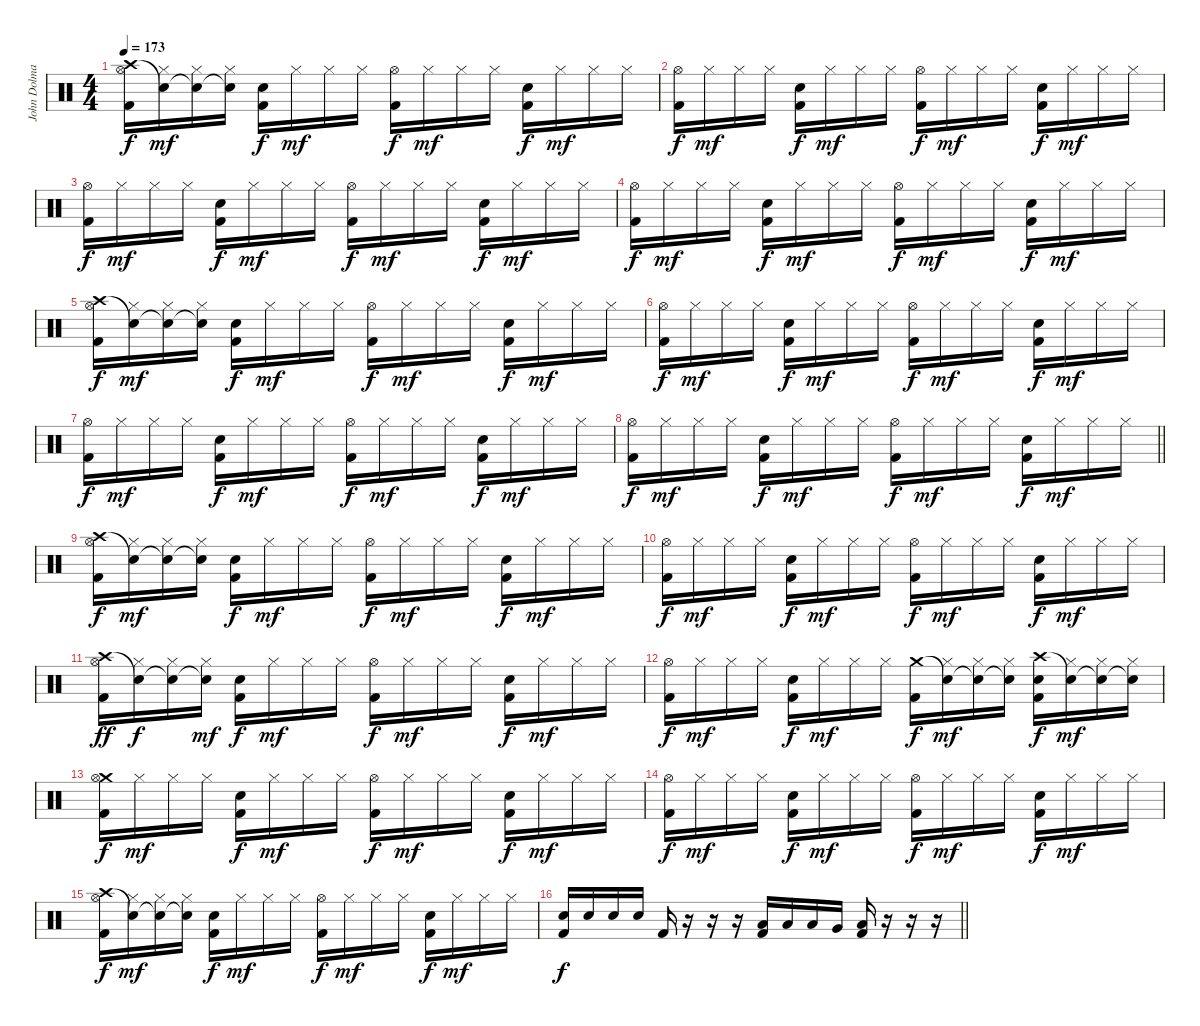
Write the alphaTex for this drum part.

\track ("John Dolmayan" "John Dolma") {instrument percussion}
\staff {score}
\articulation defaults
\ts (4 4)
\tempo 173
\clef neutral
\ks c
("Crash high (hit)" "Hi-Hat (open)" "Kick (hit) 2").16{dy f} ("Snare (hit)"{t} "Hi-Hat (closed)").16{dy mf} ("Snare (hit)"{t} "Hi-Hat (closed)").16 ("Snare (hit)"{t} "Hi-Hat (closed)").16 ("Electric Snare (hit)" "Kick (hit) 2").16{dy f} "Hi-Hat (closed)".16{dy mf} "Hi-Hat (closed)".16 "Hi-Hat (closed)".16 ("Hi-Hat (open)" "Kick (hit) 2").16{dy f} "Hi-Hat (closed)".16{dy mf} "Hi-Hat (closed)".16 "Hi-Hat (closed)".16 ("Electric Snare (hit)" "Kick (hit) 2").16{dy f} "Hi-Hat (closed)".16{dy mf} "Hi-Hat (closed)".16 "Hi-Hat (closed)".16 |
("Hi-Hat (open)" "Kick (hit) 2").16{dy f} "Hi-Hat (closed)".16{dy mf} "Hi-Hat (closed)".16 "Hi-Hat (closed)".16 ("Electric Snare (hit)" "Kick (hit) 2").16{dy f} "Hi-Hat (closed)".16{dy mf} "Hi-Hat (closed)".16 "Hi-Hat (closed)".16 ("Hi-Hat (open)" "Kick (hit) 2").16{dy f} "Hi-Hat (closed)".16{dy mf} "Hi-Hat (closed)".16 "Hi-Hat (closed)".16 ("Electric Snare (hit)" "Kick (hit) 2").16{dy f} "Hi-Hat (closed)".16{dy mf} "Hi-Hat (closed)".16 "Hi-Hat (closed)".16 |
("Hi-Hat (open)" "Kick (hit) 2").16{dy f} "Hi-Hat (closed)".16{dy mf} "Hi-Hat (closed)".16 "Hi-Hat (closed)".16 ("Electric Snare (hit)" "Kick (hit) 2").16{dy f} "Hi-Hat (closed)".16{dy mf} "Hi-Hat (closed)".16 "Hi-Hat (closed)".16 ("Hi-Hat (open)" "Kick (hit) 2").16{dy f} "Hi-Hat (closed)".16{dy mf} "Hi-Hat (closed)".16 "Hi-Hat (closed)".16 ("Electric Snare (hit)" "Kick (hit) 2").16{dy f} "Hi-Hat (closed)".16{dy mf} "Hi-Hat (closed)".16 "Hi-Hat (closed)".16 |
("Hi-Hat (open)" "Kick (hit) 2").16{dy f} "Hi-Hat (closed)".16{dy mf} "Hi-Hat (closed)".16 "Hi-Hat (closed)".16 ("Electric Snare (hit)" "Kick (hit) 2").16{dy f} "Hi-Hat (closed)".16{dy mf} "Hi-Hat (closed)".16 "Hi-Hat (closed)".16 ("Hi-Hat (open)" "Kick (hit) 2").16{dy f} "Hi-Hat (closed)".16{dy mf} "Hi-Hat (closed)".16 "Hi-Hat (closed)".16 ("Electric Snare (hit)" "Kick (hit) 2").16{dy f} "Hi-Hat (closed)".16{dy mf} "Hi-Hat (closed)".16 "Hi-Hat (closed)".16 |
("Crash high (hit)" "Hi-Hat (open)" "Kick (hit) 2").16{dy f} ("Snare (hit)"{t} "Hi-Hat (closed)").16{dy mf} ("Snare (hit)"{t} "Hi-Hat (closed)").16 ("Snare (hit)"{t} "Hi-Hat (closed)").16 ("Electric Snare (hit)" "Kick (hit) 2").16{dy f} "Hi-Hat (closed)".16{dy mf} "Hi-Hat (closed)".16 "Hi-Hat (closed)".16 ("Hi-Hat (open)" "Kick (hit) 2").16{dy f} "Hi-Hat (closed)".16{dy mf} "Hi-Hat (closed)".16 "Hi-Hat (closed)".16 ("Electric Snare (hit)" "Kick (hit) 2").16{dy f} "Hi-Hat (closed)".16{dy mf} "Hi-Hat (closed)".16 "Hi-Hat (closed)".16 |
("Hi-Hat (open)" "Kick (hit) 2").16{dy f} "Hi-Hat (closed)".16{dy mf} "Hi-Hat (closed)".16 "Hi-Hat (closed)".16 ("Electric Snare (hit)" "Kick (hit) 2").16{dy f} "Hi-Hat (closed)".16{dy mf} "Hi-Hat (closed)".16 "Hi-Hat (closed)".16 ("Hi-Hat (open)" "Kick (hit) 2").16{dy f} "Hi-Hat (closed)".16{dy mf} "Hi-Hat (closed)".16 "Hi-Hat (closed)".16 ("Electric Snare (hit)" "Kick (hit) 2").16{dy f} "Hi-Hat (closed)".16{dy mf} "Hi-Hat (closed)".16 "Hi-Hat (closed)".16 |
("Hi-Hat (open)" "Kick (hit) 2").16{dy f} "Hi-Hat (closed)".16{dy mf} "Hi-Hat (closed)".16 "Hi-Hat (closed)".16 ("Electric Snare (hit)" "Kick (hit) 2").16{dy f} "Hi-Hat (closed)".16{dy mf} "Hi-Hat (closed)".16 "Hi-Hat (closed)".16 ("Hi-Hat (open)" "Kick (hit) 2").16{dy f} "Hi-Hat (closed)".16{dy mf} "Hi-Hat (closed)".16 "Hi-Hat (closed)".16 ("Electric Snare (hit)" "Kick (hit) 2").16{dy f} "Hi-Hat (closed)".16{dy mf} "Hi-Hat (closed)".16 "Hi-Hat (closed)".16 |
\barLineRight lightlight
("Hi-Hat (open)" "Kick (hit) 2").16{dy f} "Hi-Hat (closed)".16{dy mf} "Hi-Hat (closed)".16 "Hi-Hat (closed)".16 ("Electric Snare (hit)" "Kick (hit) 2").16{dy f} "Hi-Hat (closed)".16{dy mf} "Hi-Hat (closed)".16 "Hi-Hat (closed)".16 ("Hi-Hat (open)" "Kick (hit) 2").16{dy f} "Hi-Hat (closed)".16{dy mf} "Hi-Hat (closed)".16 "Hi-Hat (closed)".16 ("Electric Snare (hit)" "Kick (hit) 2").16{dy f} "Hi-Hat (closed)".16{dy mf} "Hi-Hat (closed)".16 "Hi-Hat (closed)".16 |
("Crash high (hit)" "Hi-Hat (open)" "Kick (hit) 2").16{dy f} ("Snare (hit)"{t} "Hi-Hat (closed)").16{dy mf} ("Snare (hit)"{t} "Hi-Hat (closed)").16 ("Snare (hit)"{t} "Hi-Hat (closed)").16 ("Electric Snare (hit)" "Kick (hit) 2").16{dy f} "Hi-Hat (closed)".16{dy mf} "Hi-Hat (closed)".16 "Hi-Hat (closed)".16 ("Hi-Hat (open)" "Kick (hit) 2").16{dy f} "Hi-Hat (closed)".16{dy mf} "Hi-Hat (closed)".16 "Hi-Hat (closed)".16 ("Electric Snare (hit)" "Kick (hit) 2").16{dy f} "Hi-Hat (closed)".16{dy mf} "Hi-Hat (closed)".16 "Hi-Hat (closed)".16 |
("Hi-Hat (open)" "Kick (hit) 2").16{dy f} "Hi-Hat (closed)".16{dy mf} "Hi-Hat (closed)".16 "Hi-Hat (closed)".16 ("Electric Snare (hit)" "Kick (hit) 2").16{dy f} "Hi-Hat (closed)".16{dy mf} "Hi-Hat (closed)".16 "Hi-Hat (closed)".16 ("Hi-Hat (open)" "Kick (hit) 2").16{dy f} "Hi-Hat (closed)".16{dy mf} "Hi-Hat (closed)".16 "Hi-Hat (closed)".16 ("Electric Snare (hit)" "Kick (hit) 2").16{dy f} "Hi-Hat (closed)".16{dy mf} "Hi-Hat (closed)".16 "Hi-Hat (closed)".16 |
("Crash high (hit)" "Hi-Hat (open)" "Kick (hit) 2").16{dy ff} ("Snare (hit)"{t} "Hi-Hat (closed)").16{dy f} ("Snare (hit)"{t} "Hi-Hat (closed)").16 ("Snare (hit)"{t} "Hi-Hat (closed)").16{dy mf} ("Electric Snare (hit)" "Kick (hit) 2").16{dy f} "Hi-Hat (closed)".16{dy mf} "Hi-Hat (closed)".16 "Hi-Hat (closed)".16 ("Hi-Hat (open)" "Kick (hit) 2").16{dy f} "Hi-Hat (closed)".16{dy mf} "Hi-Hat (closed)".16 "Hi-Hat (closed)".16 ("Electric Snare (hit)" "Kick (hit) 2").16{dy f} "Hi-Hat (closed)".16{dy mf} "Hi-Hat (closed)".16 "Hi-Hat (closed)".16 |
("Hi-Hat (open)" "Kick (hit) 2").16{dy f} "Hi-Hat (closed)".16{dy mf} "Hi-Hat (closed)".16 "Hi-Hat (closed)".16 ("Electric Snare (hit)" "Kick (hit) 2").16{dy f} "Hi-Hat (closed)".16{dy mf} "Hi-Hat (closed)".16 "Hi-Hat (closed)".16 ("Crash medium (hit)" "Kick (hit) 2").16{dy f} ("Snare (hit)"{t} "Hi-Hat (closed)").16{dy mf} ("Snare (hit)"{t} "Hi-Hat (closed)").16 ("Snare (hit)"{t} "Hi-Hat (closed)").16 ("Crash high (hit)" "Electric Snare (hit)" "Kick (hit) 2").16{dy f} ("Snare (hit)"{t} "Hi-Hat (closed)").16{dy mf} ("Snare (hit)"{t} "Hi-Hat (closed)").16 ("Snare (hit)"{t} "Hi-Hat (closed)").16 |
("Crash medium (hit)" "Hi-Hat (open)" "Kick (hit) 2").16{dy f} "Hi-Hat (closed)".16{dy mf} "Hi-Hat (closed)".16 "Hi-Hat (closed)".16 ("Electric Snare (hit)" "Kick (hit) 2").16{dy f} "Hi-Hat (closed)".16{dy mf} "Hi-Hat (closed)".16 "Hi-Hat (closed)".16 ("Hi-Hat (open)" "Kick (hit) 2").16{dy f} "Hi-Hat (closed)".16{dy mf} "Hi-Hat (closed)".16 "Hi-Hat (closed)".16 ("Electric Snare (hit)" "Kick (hit) 2").16{dy f} "Hi-Hat (closed)".16{dy mf} "Hi-Hat (closed)".16 "Hi-Hat (closed)".16 |
("Hi-Hat (open)" "Kick (hit) 2").16{dy f} "Hi-Hat (closed)".16{dy mf} "Hi-Hat (closed)".16 "Hi-Hat (closed)".16 ("Electric Snare (hit)" "Kick (hit) 2").16{dy f} "Hi-Hat (closed)".16{dy mf} "Hi-Hat (closed)".16 "Hi-Hat (closed)".16 ("Hi-Hat (open)" "Kick (hit) 2").16{dy f} "Hi-Hat (closed)".16{dy mf} "Hi-Hat (closed)".16 "Hi-Hat (closed)".16 ("Electric Snare (hit)" "Kick (hit) 2").16{dy f} "Hi-Hat (closed)".16{dy mf} "Hi-Hat (closed)".16 "Hi-Hat (closed)".16 |
("Crash high (hit)" "Hi-Hat (open)" "Kick (hit) 2").16{dy f} ("Snare (hit)"{t} "Hi-Hat (closed)").16{dy mf} ("Snare (hit)"{t} "Hi-Hat (closed)").16 ("Snare (hit)"{t} "Hi-Hat (closed)").16 ("Electric Snare (hit)" "Kick (hit) 2").16{dy f} "Hi-Hat (closed)".16{dy mf} "Hi-Hat (closed)".16 "Hi-Hat (closed)".16 ("Hi-Hat (open)" "Kick (hit) 2").16{dy f} "Hi-Hat (closed)".16{dy mf} "Hi-Hat (closed)".16 "Hi-Hat (closed)".16 ("Electric Snare (hit)" "Kick (hit) 2").16{dy f} "Hi-Hat (closed)".16{dy mf} "Hi-Hat (closed)".16 "Hi-Hat (closed)".16 |
\barLineRight lightlight
("Electric Snare (hit)" "Kick (hit) 2").16{dy f} "Electric Snare (hit)".16 "Electric Snare (hit)".16 "Electric Snare (hit)".16 "Kick (hit) 2".16 r.16 r.16 r.16 ("Low Tom (hit)" "Kick (hit) 2").16 "Low Tom (hit)".16 "Low Tom (hit)".16 "Very Low Tom (hit)".16 ("Low Floor Tom (hit)" "Kick (hit) 2").16 r.16 r.16 r.16
